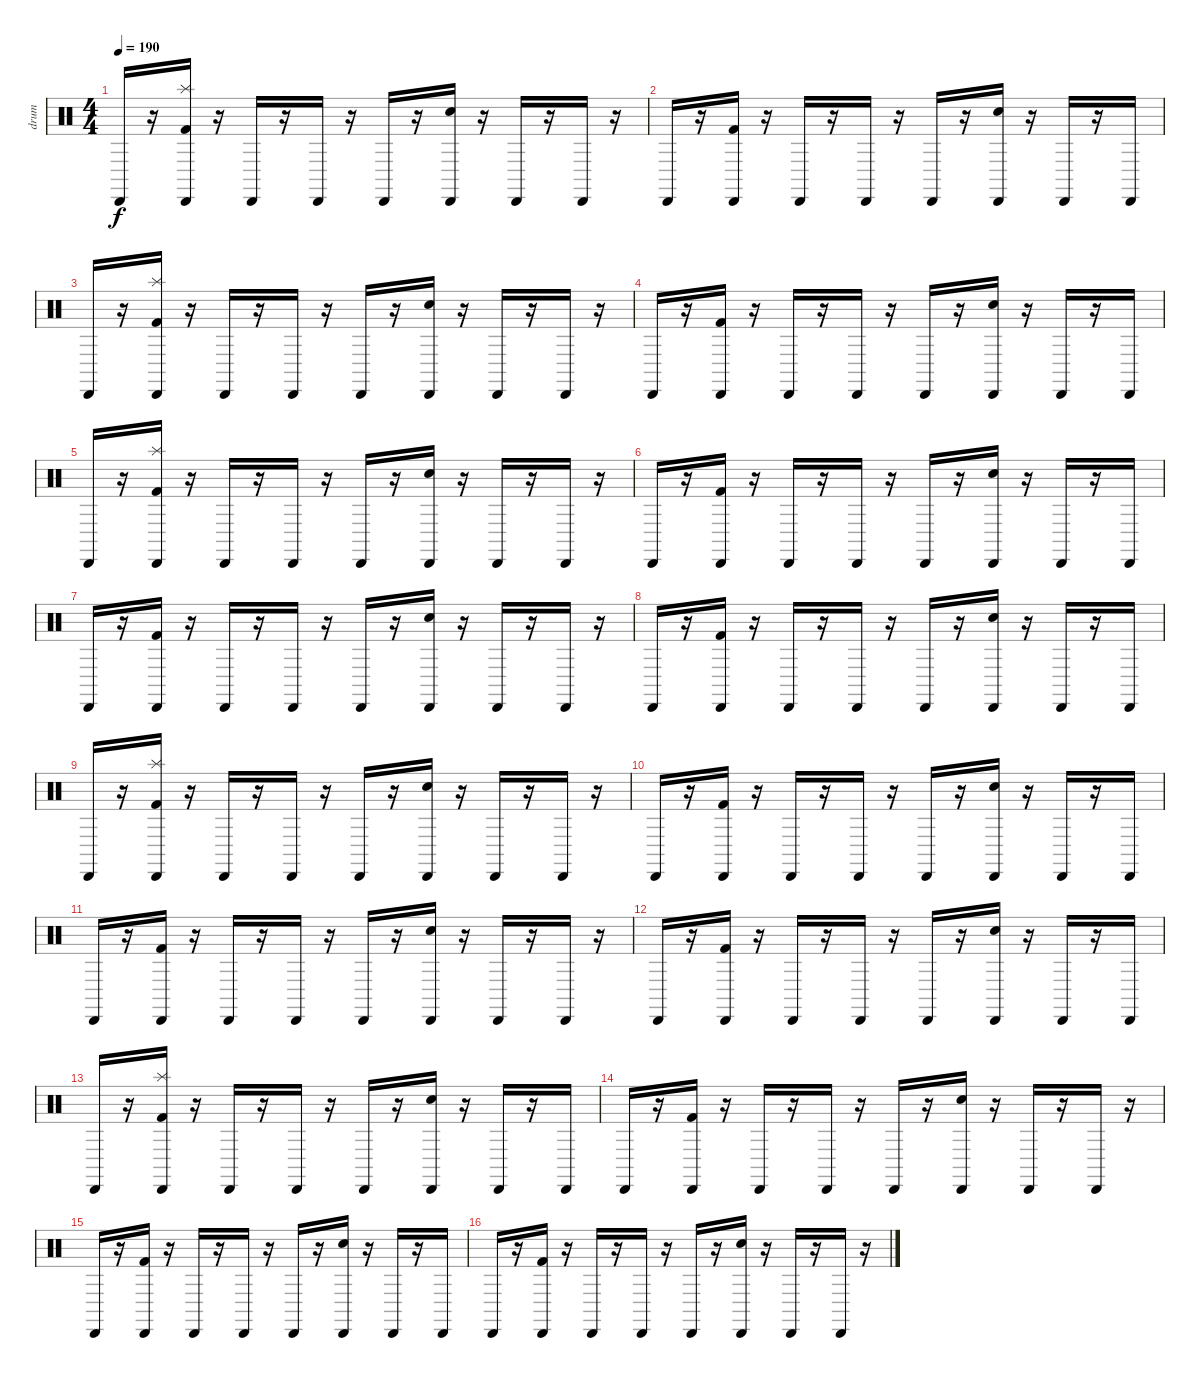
\track ("drum" "drum") {instrument percussion}
\staff {score}
\articulation defaults
\ts (4 4)
\tempo 190
\clef neutral
\ks c "Cabasa (hit)".16{dy f}
r.16 ("Cabasa (hit)" "Kick (hit) 2" "Splash (hit)").16 r.16 "Cabasa (hit)".16 r.16 "Cabasa (hit)".16 r.16 "Cabasa (hit)".16 r.16 ("Cabasa (hit)" "Snare (hit) 2").16 r.16 "Cabasa (hit)".16 r.16 "Cabasa (hit)".16 r.16 |
"Cabasa (hit)".16 r.16 ("Cabasa (hit)" "Kick (hit) 2").16 r.16 "Cabasa (hit)".16 r.16 "Cabasa (hit)".16 r.16 "Cabasa (hit)".16 r.16 ("Cabasa (hit)" "Snare (hit) 2").16 r.16 "Cabasa (hit)".16 r.16 "Cabasa (hit)".16 |
"Cabasa (hit)".16 r.16 ("Cabasa (hit)" "Kick (hit) 2" "Splash (hit)").16 r.16 "Cabasa (hit)".16 r.16 "Cabasa (hit)".16 r.16 "Cabasa (hit)".16 r.16 ("Cabasa (hit)" "Snare (hit) 2").16 r.16 "Cabasa (hit)".16 r.16 "Cabasa (hit)".16 r.16 |
"Cabasa (hit)".16 r.16 ("Cabasa (hit)" "Kick (hit) 2").16 r.16 "Cabasa (hit)".16 r.16 "Cabasa (hit)".16 r.16 "Cabasa (hit)".16 r.16 ("Cabasa (hit)" "Snare (hit) 2").16 r.16 "Cabasa (hit)".16 r.16 "Cabasa (hit)".16 |
"Cabasa (hit)".16 r.16 ("Cabasa (hit)" "Kick (hit) 2" "Splash (hit)").16 r.16 "Cabasa (hit)".16 r.16 "Cabasa (hit)".16 r.16 "Cabasa (hit)".16 r.16 ("Cabasa (hit)" "Snare (hit) 2").16 r.16 "Cabasa (hit)".16 r.16 "Cabasa (hit)".16 r.16 |
"Cabasa (hit)".16 r.16 ("Cabasa (hit)" "Kick (hit) 2").16 r.16 "Cabasa (hit)".16 r.16 "Cabasa (hit)".16 r.16 "Cabasa (hit)".16 r.16 ("Cabasa (hit)" "Snare (hit) 2").16 r.16 "Cabasa (hit)".16 r.16 "Cabasa (hit)".16 |
"Cabasa (hit)".16 r.16 ("Cabasa (hit)" "Kick (hit) 2").16 r.16 "Cabasa (hit)".16 r.16 "Cabasa (hit)".16 r.16 "Cabasa (hit)".16 r.16 ("Cabasa (hit)" "Snare (hit) 2").16 r.16 "Cabasa (hit)".16 r.16 "Cabasa (hit)".16 r.16 |
"Cabasa (hit)".16 r.16 ("Cabasa (hit)" "Kick (hit) 2").16 r.16 "Cabasa (hit)".16 r.16 "Cabasa (hit)".16 r.16 "Cabasa (hit)".16 r.16 ("Cabasa (hit)" "Snare (hit) 2").16 r.16 "Cabasa (hit)".16 r.16 "Cabasa (hit)".16 |
"Cabasa (hit)".16 r.16 ("Cabasa (hit)" "Kick (hit) 2" "Splash (hit)").16 r.16 "Cabasa (hit)".16 r.16 "Cabasa (hit)".16 r.16 "Cabasa (hit)".16 r.16 ("Cabasa (hit)" "Snare (hit) 2").16 r.16 "Cabasa (hit)".16 r.16 "Cabasa (hit)".16 r.16 |
"Cabasa (hit)".16 r.16 ("Cabasa (hit)" "Kick (hit) 2").16 r.16 "Cabasa (hit)".16 r.16 "Cabasa (hit)".16 r.16 "Cabasa (hit)".16 r.16 ("Cabasa (hit)" "Snare (hit) 2").16 r.16 "Cabasa (hit)".16 r.16 "Cabasa (hit)".16 |
"Cabasa (hit)".16 r.16 ("Cabasa (hit)" "Kick (hit) 2").16 r.16 "Cabasa (hit)".16 r.16 "Cabasa (hit)".16 r.16 "Cabasa (hit)".16 r.16 ("Cabasa (hit)" "Snare (hit) 2").16 r.16 "Cabasa (hit)".16 r.16 "Cabasa (hit)".16 r.16 |
"Cabasa (hit)".16 r.16 ("Cabasa (hit)" "Kick (hit) 2").16 r.16 "Cabasa (hit)".16 r.16 "Cabasa (hit)".16 r.16 "Cabasa (hit)".16 r.16 ("Cabasa (hit)" "Snare (hit) 2").16 r.16 "Cabasa (hit)".16 r.16 "Cabasa (hit)".16 |
"Cabasa (hit)".16 r.16 ("Cabasa (hit)" "Kick (hit) 2" "Splash (hit)").16 r.16 "Cabasa (hit)".16 r.16 "Cabasa (hit)".16 r.16 "Cabasa (hit)".16 r.16 ("Cabasa (hit)" "Snare (hit) 2").16 r.16 "Cabasa (hit)".16 r.16 "Cabasa (hit)".16 |
"Cabasa (hit)".16 r.16 ("Cabasa (hit)" "Kick (hit) 2").16 r.16 "Cabasa (hit)".16 r.16 "Cabasa (hit)".16 r.16 "Cabasa (hit)".16 r.16 ("Cabasa (hit)" "Snare (hit) 2").16 r.16 "Cabasa (hit)".16 r.16 "Cabasa (hit)".16 r.16 |
"Cabasa (hit)".16 r.16 ("Cabasa (hit)" "Kick (hit) 2").16 r.16 "Cabasa (hit)".16 r.16 "Cabasa (hit)".16 r.16 "Cabasa (hit)".16 r.16 ("Cabasa (hit)" "Snare (hit) 2").16 r.16 "Cabasa (hit)".16 r.16 "Cabasa (hit)".16 |
"Cabasa (hit)".16 r.16 ("Cabasa (hit)" "Kick (hit) 2").16 r.16 "Cabasa (hit)".16 r.16 "Cabasa (hit)".16 r.16 "Cabasa (hit)".16 r.16 ("Cabasa (hit)" "Snare (hit) 2").16 r.16 "Cabasa (hit)".16 r.16 "Cabasa (hit)".16 r.16
